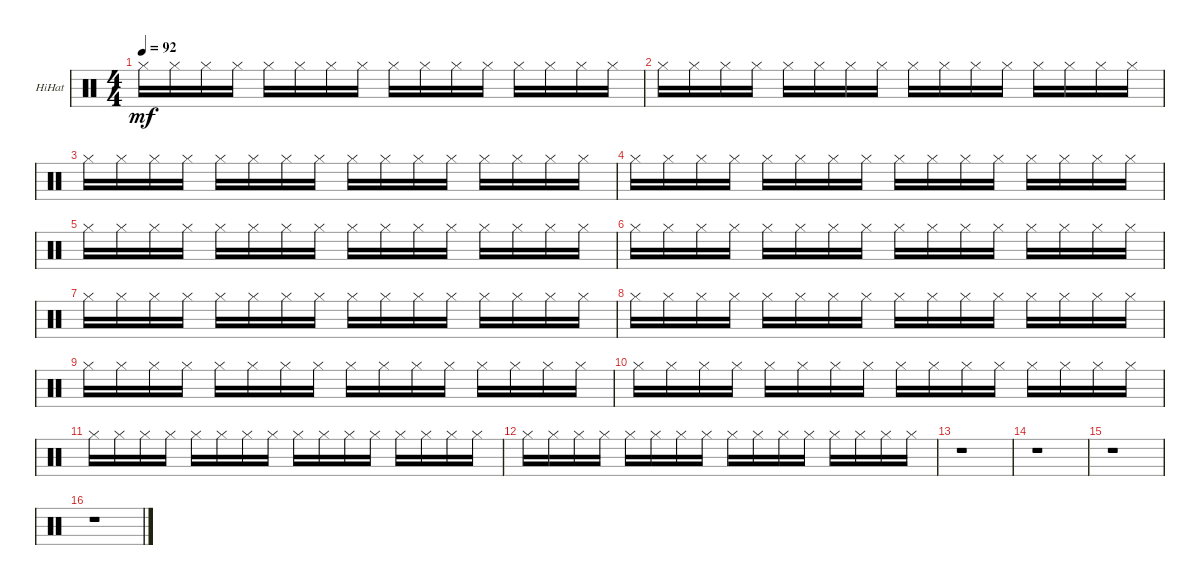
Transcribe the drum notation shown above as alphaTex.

\bracketExtendMode groupsimilarinstruments
\firstSystemTrackNameOrientation horizontal
\otherSystemsTrackNameOrientation horizontal
\track (" HiHat" " HiHat") {instrument percussion}
\staff {score}
\articulation defaults
\ts (4 4)
\tempo 92
\clef neutral
\ks c "Hi-Hat (closed)".16{dy mf} "Hi-Hat (closed)".16 "Hi-Hat (closed)".16 "Hi-Hat (closed)".16 "Hi-Hat (closed)".16 "Hi-Hat (closed)".16 "Hi-Hat (closed)".16 "Hi-Hat (closed)".16 "Hi-Hat (closed)".16 "Hi-Hat (closed)".16 "Hi-Hat (closed)".16 "Hi-Hat (closed)".16 "Hi-Hat (closed)".16 "Hi-Hat (closed)".16 "Hi-Hat (closed)".16 "Hi-Hat (closed)".16
|
"Hi-Hat (closed)".16 "Hi-Hat (closed)".16 "Hi-Hat (closed)".16 "Hi-Hat (closed)".16 "Hi-Hat (closed)".16 "Hi-Hat (closed)".16 "Hi-Hat (closed)".16 "Hi-Hat (closed)".16 "Hi-Hat (closed)".16 "Hi-Hat (closed)".16 "Hi-Hat (closed)".16 "Hi-Hat (closed)".16 "Hi-Hat (closed)".16 "Hi-Hat (closed)".16 "Hi-Hat (closed)".16 "Hi-Hat (closed)".16 |
"Hi-Hat (closed)".16 "Hi-Hat (closed)".16 "Hi-Hat (closed)".16 "Hi-Hat (closed)".16 "Hi-Hat (closed)".16 "Hi-Hat (closed)".16 "Hi-Hat (closed)".16 "Hi-Hat (closed)".16 "Hi-Hat (closed)".16 "Hi-Hat (closed)".16 "Hi-Hat (closed)".16 "Hi-Hat (closed)".16 "Hi-Hat (closed)".16 "Hi-Hat (closed)".16 "Hi-Hat (closed)".16 "Hi-Hat (closed)".16 |
"Hi-Hat (closed)".16 "Hi-Hat (closed)".16 "Hi-Hat (closed)".16 "Hi-Hat (closed)".16 "Hi-Hat (closed)".16 "Hi-Hat (closed)".16 "Hi-Hat (closed)".16 "Hi-Hat (closed)".16 "Hi-Hat (closed)".16 "Hi-Hat (closed)".16 "Hi-Hat (closed)".16 "Hi-Hat (closed)".16 "Hi-Hat (closed)".16 "Hi-Hat (closed)".16 "Hi-Hat (closed)".16 "Hi-Hat (closed)".16 |
"Hi-Hat (closed)".16 "Hi-Hat (closed)".16 "Hi-Hat (closed)".16 "Hi-Hat (closed)".16 "Hi-Hat (closed)".16 "Hi-Hat (closed)".16 "Hi-Hat (closed)".16 "Hi-Hat (closed)".16 "Hi-Hat (closed)".16 "Hi-Hat (closed)".16 "Hi-Hat (closed)".16 "Hi-Hat (closed)".16 "Hi-Hat (closed)".16 "Hi-Hat (closed)".16 "Hi-Hat (closed)".16 "Hi-Hat (closed)".16 |
"Hi-Hat (closed)".16 "Hi-Hat (closed)".16 "Hi-Hat (closed)".16 "Hi-Hat (closed)".16 "Hi-Hat (closed)".16 "Hi-Hat (closed)".16 "Hi-Hat (closed)".16 "Hi-Hat (closed)".16 "Hi-Hat (closed)".16 "Hi-Hat (closed)".16 "Hi-Hat (closed)".16 "Hi-Hat (closed)".16 "Hi-Hat (closed)".16 "Hi-Hat (closed)".16 "Hi-Hat (closed)".16 "Hi-Hat (closed)".16 |
"Hi-Hat (closed)".16 "Hi-Hat (closed)".16 "Hi-Hat (closed)".16 "Hi-Hat (closed)".16 "Hi-Hat (closed)".16 "Hi-Hat (closed)".16 "Hi-Hat (closed)".16 "Hi-Hat (closed)".16 "Hi-Hat (closed)".16 "Hi-Hat (closed)".16 "Hi-Hat (closed)".16 "Hi-Hat (closed)".16 "Hi-Hat (closed)".16 "Hi-Hat (closed)".16 "Hi-Hat (closed)".16 "Hi-Hat (closed)".16 |
"Hi-Hat (closed)".16 "Hi-Hat (closed)".16 "Hi-Hat (closed)".16 "Hi-Hat (closed)".16 "Hi-Hat (closed)".16 "Hi-Hat (closed)".16 "Hi-Hat (closed)".16 "Hi-Hat (closed)".16 "Hi-Hat (closed)".16 "Hi-Hat (closed)".16 "Hi-Hat (closed)".16 "Hi-Hat (closed)".16 "Hi-Hat (closed)".16 "Hi-Hat (closed)".16 "Hi-Hat (closed)".16 "Hi-Hat (closed)".16 |
"Hi-Hat (closed)".16 "Hi-Hat (closed)".16 "Hi-Hat (closed)".16 "Hi-Hat (closed)".16 "Hi-Hat (closed)".16 "Hi-Hat (closed)".16 "Hi-Hat (closed)".16 "Hi-Hat (closed)".16 "Hi-Hat (closed)".16 "Hi-Hat (closed)".16 "Hi-Hat (closed)".16 "Hi-Hat (closed)".16 "Hi-Hat (closed)".16 "Hi-Hat (closed)".16 "Hi-Hat (closed)".16 "Hi-Hat (closed)".16 |
"Hi-Hat (closed)".16 "Hi-Hat (closed)".16 "Hi-Hat (closed)".16 "Hi-Hat (closed)".16 "Hi-Hat (closed)".16 "Hi-Hat (closed)".16 "Hi-Hat (closed)".16 "Hi-Hat (closed)".16 "Hi-Hat (closed)".16 "Hi-Hat (closed)".16 "Hi-Hat (closed)".16 "Hi-Hat (closed)".16 "Hi-Hat (closed)".16 "Hi-Hat (closed)".16 "Hi-Hat (closed)".16 "Hi-Hat (closed)".16 |
"Hi-Hat (closed)".16 "Hi-Hat (closed)".16 "Hi-Hat (closed)".16 "Hi-Hat (closed)".16 "Hi-Hat (closed)".16 "Hi-Hat (closed)".16 "Hi-Hat (closed)".16 "Hi-Hat (closed)".16 "Hi-Hat (closed)".16 "Hi-Hat (closed)".16 "Hi-Hat (closed)".16 "Hi-Hat (closed)".16 "Hi-Hat (closed)".16 "Hi-Hat (closed)".16 "Hi-Hat (closed)".16 "Hi-Hat (closed)".16 |
"Hi-Hat (closed)".16 "Hi-Hat (closed)".16 "Hi-Hat (closed)".16 "Hi-Hat (closed)".16 "Hi-Hat (closed)".16 "Hi-Hat (closed)".16 "Hi-Hat (closed)".16 "Hi-Hat (closed)".16 "Hi-Hat (closed)".16 "Hi-Hat (closed)".16 "Hi-Hat (closed)".16 "Hi-Hat (closed)".16 "Hi-Hat (closed)".16 "Hi-Hat (closed)".16 "Hi-Hat (closed)".16 "Hi-Hat (closed)".16 |
r.1 |
r.1 |
r.1 |
r.1
